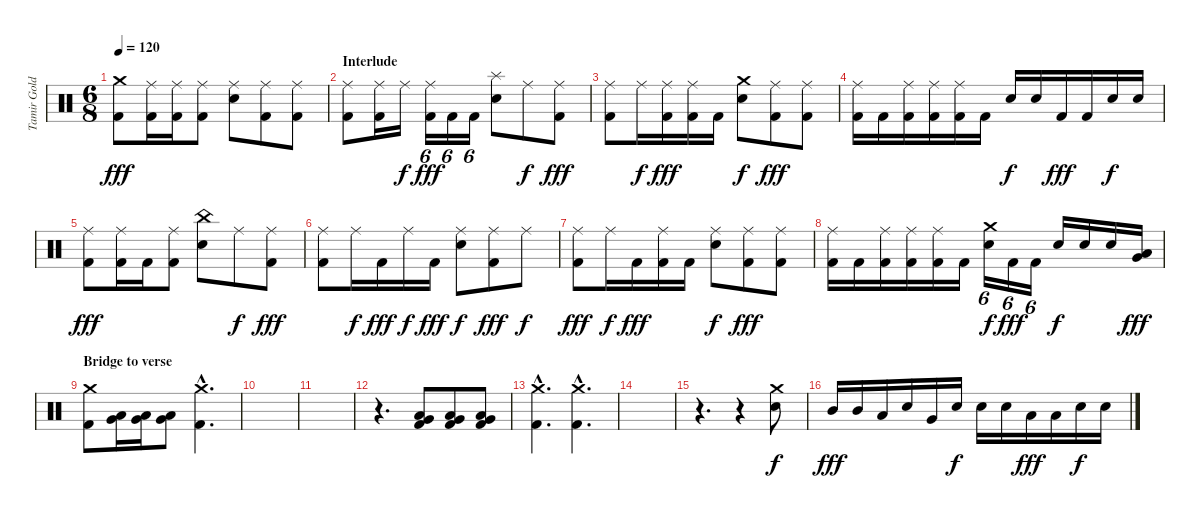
\track ("Tamir Goldberg" "Tamir Gold") {instrument percussion}
\staff {score}
\articulation defaults
\ts (6 8)
\tempo 120
\clef neutral
\ks c
("Crash medium (hit)" "Kick (hit) 2").8{dy fff} ("Ride (middle)" "Kick (hit) 2").16 ("Ride (middle)" "Kick (hit) 2").16 ("Ride (middle)" "Kick (hit) 2").8 ("Ride (middle)" "Electric Snare (hit)").8 ("Ride (middle)" "Kick (hit) 2").8 ("Ride (middle)" "Kick (hit) 2").8 |
\section ("" "Interlude")
("Ride (middle)" "Kick (hit) 2").8 ("Ride (middle)" "Kick (hit) 2").16 "Ride (middle)".16{dy f} ("Ride (middle)" "Kick (hit) 2").16{tu (6 4) dy fff} "Kick (hit) 2".16{tu (6 4)} "Kick (hit) 2".16{tu (6 4)} ("Splash (hit)" "Electric Snare (hit)").8 "Ride (middle)".8{dy f} ("Ride (middle)" "Kick (hit) 2").8{dy fff} |
("Ride (middle)" "Kick (hit) 2").8 "Ride (middle)".16{dy f} ("Ride (middle)" "Kick (hit) 2").16{dy fff} ("Ride (middle)" "Kick (hit) 2").16 "Kick (hit) 2".16 ("Crash medium (hit)" "Electric Snare (hit)").8{dy f} ("Ride (middle)" "Kick (hit) 2").8{dy fff} ("Ride (middle)" "Kick (hit) 2").8 |
("Ride (middle)" "Kick (hit) 2").16 "Kick (hit) 2".16 ("Ride (middle)" "Kick (hit) 2").16 ("Ride (middle)" "Kick (hit) 2").16 ("Ride (middle)" "Kick (hit) 2").16 "Kick (hit) 2".16 "Electric Snare (hit)".16{dy f} "Electric Snare (hit)".16 "Kick (hit) 2".16{dy fff} "Kick (hit) 2".16 "Electric Snare (hit)".16{dy f} "Electric Snare (hit)".16 |
("Ride (middle)" "Kick (hit) 2").8{dy fff} ("Ride (middle)" "Kick (hit) 2").16 "Kick (hit) 2".16 ("Ride (middle)" "Kick (hit) 2").8 ("China (hit)" "Electric Snare (hit)").8 "Ride (middle)".8{dy f} ("Ride (middle)" "Kick (hit) 2").8{dy fff} |
("Ride (middle)" "Kick (hit) 2").8 "Ride (middle)".16{dy f} "Kick (hit) 2".16{dy fff} "Ride (middle)".16{dy f} "Kick (hit) 2".16{dy fff} ("Ride (middle)" "Electric Snare (hit)").8{dy f} ("Ride (middle)" "Kick (hit) 2").8{dy fff} "Ride (middle)".8{dy f} |
("Ride (middle)" "Kick (hit) 2").8{dy fff} "Ride (middle)".16{dy f} "Kick (hit) 2".16{dy fff} ("Ride (middle)" "Kick (hit) 2").16 "Kick (hit) 2".16 ("Ride (middle)" "Electric Snare (hit)").8{dy f} ("Ride (middle)" "Kick (hit) 2").8{dy fff} ("Ride (middle)" "Kick (hit) 2").8 |
("Ride (middle)" "Kick (hit) 2").16 "Kick (hit) 2".16 ("Ride (middle)" "Kick (hit) 2").16 ("Ride (middle)" "Kick (hit) 2").16 ("Ride (middle)" "Kick (hit) 2").16 "Kick (hit) 2".16 ("Crash medium (hit)" "Electric Snare (hit)").16{tu (6 4) dy f} "Kick (hit) 2".16{tu (6 4) dy fff} "Kick (hit) 2".16{tu (6 4)} "Electric Snare (hit)".16{dy f} "Electric Snare (hit)".16 "Electric Snare (hit)".16 ("Low Tom (hit)" "Very Low Tom (hit)").16{dy fff} |
\section ("" "Bridge to verse")
("Crash medium (hit)" "Kick (hit) 2").8 ("Very Low Tom (hit)" "Low Floor Tom (hit)").16 ("Very Low Tom (hit)" "Low Floor Tom (hit)").16 ("Very Low Tom (hit)" "Low Floor Tom (hit)").8 ("Crash medium (hit)"{hac} "Kick (hit) 2"{hac}).4{d} |
|
|
r.4{d} ("Very Low Tom (hit)" "Low Floor Tom (hit)" "Kick (hit) 2").8 ("Very Low Tom (hit)" "Low Floor Tom (hit)" "Kick (hit) 2").8 ("Very Low Tom (hit)" "Low Floor Tom (hit)" "Kick (hit) 2").8 |
("Crash medium (hit)"{hac} "Kick (hit) 2"{hac}).4{d} ("Crash medium (hit)"{hac} "Kick (hit) 2"{hac}).4{d} |
|
r.4{d} r.4 ("Crash medium (hit)" "Electric Snare (hit)").8{dy f} |
"Mid Tom (hit)".16{dy fff} "Mid Tom (hit)".16 "Low Tom (hit)".16 "Electric Snare (hit)".16 "Very Low Tom (hit)".16 "Electric Snare (hit)".16{dy f} "Electric Snare (hit)".16 "Electric Snare (hit)".16 "Low Tom (hit)".16{dy fff} "Low Tom (hit)".16 "Electric Snare (hit)".16{dy f} "Electric Snare (hit)".16
